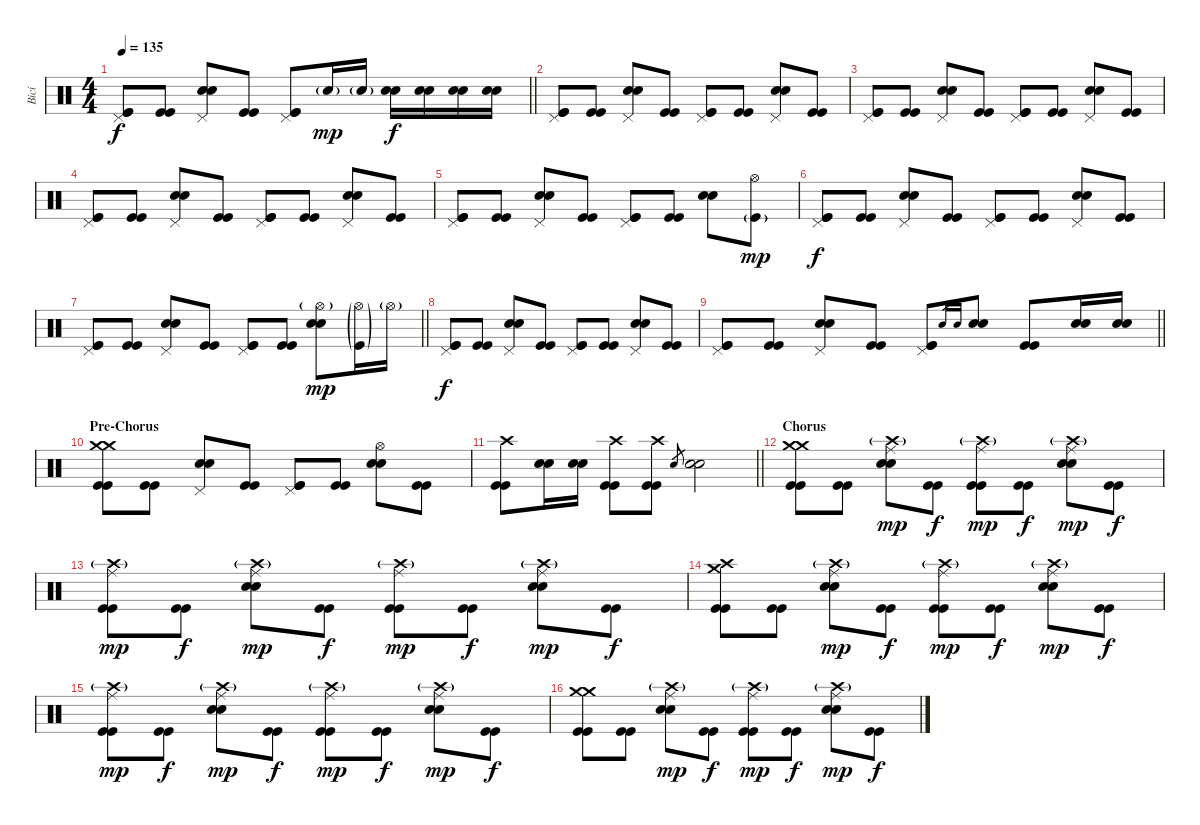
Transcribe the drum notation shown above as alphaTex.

\track ("Bicí" "Bicí") {instrument percussion}
\staff {score}
\articulation defaults
\ts (4 4)
\tempo 135
\clef neutral
\barLineRight lightlight
\ks c
("Pedal Hi-Hat (hit)" "Kick (hit)" "Kick (hit)").8{dy f} ("Kick (hit)" "Kick (hit)").8 ("Pedal Hi-Hat (hit)" "Electric Snare (hit)" "Electric Snare (hit)").8 ("Kick (hit)" "Kick (hit)").8 ("Pedal Hi-Hat (hit)" "Kick (hit)" "Kick (hit)").8 "Electric Snare (hit)"{g}.16{dy mp} "Electric Snare (hit)"{g}.16 ("Electric Snare (hit)" "Electric Snare (hit)").16{dy f} ("Electric Snare (hit)" "Electric Snare (hit)").16 ("Electric Snare (hit)" "Electric Snare (hit)").16 ("Electric Snare (hit)" "Electric Snare (hit)").16 |
("Pedal Hi-Hat (hit)" "Kick (hit)" "Kick (hit)").8 ("Kick (hit)" "Kick (hit)").8 ("Pedal Hi-Hat (hit)" "Electric Snare (hit)" "Electric Snare (hit)").8 ("Kick (hit)" "Kick (hit)").8 ("Pedal Hi-Hat (hit)" "Kick (hit)" "Kick (hit)").8 ("Kick (hit)" "Kick (hit)").8 ("Pedal Hi-Hat (hit)" "Electric Snare (hit)" "Electric Snare (hit)").8 ("Kick (hit)" "Kick (hit)").8 |
("Pedal Hi-Hat (hit)" "Kick (hit)" "Kick (hit)").8 ("Kick (hit)" "Kick (hit)").8 ("Pedal Hi-Hat (hit)" "Electric Snare (hit)" "Electric Snare (hit)").8 ("Kick (hit)" "Kick (hit)").8 ("Pedal Hi-Hat (hit)" "Kick (hit)" "Kick (hit)").8 ("Kick (hit)" "Kick (hit)").8 ("Pedal Hi-Hat (hit)" "Electric Snare (hit)" "Electric Snare (hit)").8 ("Kick (hit)" "Kick (hit)").8 |
("Pedal Hi-Hat (hit)" "Kick (hit)" "Kick (hit)").8 ("Kick (hit)" "Kick (hit)").8 ("Pedal Hi-Hat (hit)" "Electric Snare (hit)" "Electric Snare (hit)").8 ("Kick (hit)" "Kick (hit)").8 ("Pedal Hi-Hat (hit)" "Kick (hit)" "Kick (hit)").8 ("Kick (hit)" "Kick (hit)").8 ("Pedal Hi-Hat (hit)" "Electric Snare (hit)" "Electric Snare (hit)").8 ("Kick (hit)" "Kick (hit)").8 |
("Pedal Hi-Hat (hit)" "Kick (hit)" "Kick (hit)").8 ("Kick (hit)" "Kick (hit)").8 ("Pedal Hi-Hat (hit)" "Electric Snare (hit)" "Electric Snare (hit)").8 ("Kick (hit)" "Kick (hit)").8 ("Pedal Hi-Hat (hit)" "Kick (hit)" "Kick (hit)").8 ("Kick (hit)" "Kick (hit)").8 ("Electric Snare (hit)" "Electric Snare (hit)").8 ("Hi-Hat (open)" "Kick (hit)"{g}).8{dy mp} |
("Pedal Hi-Hat (hit)" "Kick (hit)" "Kick (hit)").8{dy f} ("Kick (hit)" "Kick (hit)").8 ("Pedal Hi-Hat (hit)" "Electric Snare (hit)" "Electric Snare (hit)").8 ("Kick (hit)" "Kick (hit)").8 ("Pedal Hi-Hat (hit)" "Kick (hit)" "Kick (hit)").8 ("Kick (hit)" "Kick (hit)").8 ("Pedal Hi-Hat (hit)" "Electric Snare (hit)" "Electric Snare (hit)").8 ("Kick (hit)" "Kick (hit)").8 |
\barLineRight lightlight
("Pedal Hi-Hat (hit)" "Kick (hit)" "Kick (hit)").8 ("Kick (hit)" "Kick (hit)").8 ("Pedal Hi-Hat (hit)" "Electric Snare (hit)" "Electric Snare (hit)").8 ("Kick (hit)" "Kick (hit)").8 ("Pedal Hi-Hat (hit)" "Kick (hit)" "Kick (hit)").8 ("Kick (hit)" "Kick (hit)").8 ("Hi-Hat (open)"{g} "Electric Snare (hit)" "Electric Snare (hit)").8{dy mp} ("Hi-Hat (open)"{g} "Kick (hit)"{g}).16 "Hi-Hat (open)"{g}.16 |
("Pedal Hi-Hat (hit)" "Kick (hit)" "Kick (hit)").8{dy f} ("Kick (hit)" "Kick (hit)").8 ("Pedal Hi-Hat (hit)" "Electric Snare (hit)" "Electric Snare (hit)").8 ("Kick (hit)" "Kick (hit)").8 ("Pedal Hi-Hat (hit)" "Kick (hit)" "Kick (hit)").8 ("Kick (hit)" "Kick (hit)").8 ("Pedal Hi-Hat (hit)" "Electric Snare (hit)" "Electric Snare (hit)").8 ("Kick (hit)" "Kick (hit)").8 |
\barLineRight lightlight
("Pedal Hi-Hat (hit)" "Kick (hit)" "Kick (hit)").8 ("Kick (hit)" "Kick (hit)").8 ("Pedal Hi-Hat (hit)" "Electric Snare (hit)" "Electric Snare (hit)").8 ("Kick (hit)" "Kick (hit)").8 ("Pedal Hi-Hat (hit)" "Kick (hit)" "Kick (hit)").8 "Electric Snare (hit)".16{gr} "Electric Snare (hit)".16{gr} ("Electric Snare (hit)" "Electric Snare (hit)").8 ("Kick (hit)" "Kick (hit)").8 ("Electric Snare (hit)" "Electric Snare (hit)").16 ("Electric Snare (hit)" "Electric Snare (hit)").16 |
\section ("" "Pre-Chorus")
("Crash medium (hit)" "Crash medium (hit)" "Kick (hit)" "Kick (hit)").8 ("Kick (hit)" "Kick (hit)").8 ("Pedal Hi-Hat (hit)" "Electric Snare (hit)" "Electric Snare (hit)").8 ("Kick (hit)" "Kick (hit)").8 ("Pedal Hi-Hat (hit)" "Kick (hit)" "Kick (hit)").8 ("Kick (hit)" "Kick (hit)").8 ("Hi-Hat (open)" "Electric Snare (hit)" "Electric Snare (hit)").8 ("Kick (hit)" "Kick (hit)").8 |
\barLineRight lightlight
("Crash high (hit)" "Kick (hit)" "Kick (hit)").8 ("Electric Snare (hit)" "Electric Snare (hit)").16 ("Electric Snare (hit)" "Electric Snare (hit)").16 ("Crash high (hit)" "Kick (hit)" "Kick (hit)").8 ("Crash high (hit)" "Kick (hit)" "Kick (hit)").8 "Electric Snare (hit)".8{gr} ("Electric Snare (hit)" "Electric Snare (hit)").2 |
\section ("" "Chorus")
("Crash medium (hit)" "Crash medium (hit)" "Kick (hit)" "Kick (hit)").8 ("Kick (hit)" "Kick (hit)").8 ("Crash high (hit)"{g} "Ride (middle)" "Electric Snare (hit)" "Electric Snare (hit)").8{dy mp} ("Kick (hit)" "Kick (hit)").8{dy f} ("Crash high (hit)"{g} "Ride (middle)" "Kick (hit)" "Kick (hit)").8{dy mp} ("Kick (hit)" "Kick (hit)").8{dy f} ("Crash high (hit)"{g} "Ride (middle)" "Electric Snare (hit)" "Electric Snare (hit)").8{dy mp} ("Kick (hit)" "Kick (hit)").8{dy f} |
("Crash high (hit)"{g} "Ride (middle)" "Kick (hit)" "Kick (hit)").8{dy mp} ("Kick (hit)" "Kick (hit)").8{dy f} ("Crash high (hit)"{g} "Ride (middle)" "Electric Snare (hit)" "Electric Snare (hit)").8{dy mp} ("Kick (hit)" "Kick (hit)").8{dy f} ("Crash high (hit)"{g} "Ride (middle)" "Kick (hit)" "Kick (hit)").8{dy mp} ("Kick (hit)" "Kick (hit)").8{dy f} ("Crash high (hit)"{g} "Ride (middle)" "Electric Snare (hit)" "Electric Snare (hit)").8{dy mp} ("Kick (hit)" "Kick (hit)").8{dy f} |
("Crash high (hit)" "Crash medium (hit)" "Kick (hit)" "Kick (hit)").8 ("Kick (hit)" "Kick (hit)").8 ("Crash high (hit)"{g} "Ride (middle)" "Electric Snare (hit)" "Electric Snare (hit)").8{dy mp} ("Kick (hit)" "Kick (hit)").8{dy f} ("Crash high (hit)"{g} "Ride (middle)" "Kick (hit)" "Kick (hit)").8{dy mp} ("Kick (hit)" "Kick (hit)").8{dy f} ("Crash high (hit)"{g} "Ride (middle)" "Electric Snare (hit)" "Electric Snare (hit)").8{dy mp} ("Kick (hit)" "Kick (hit)").8{dy f} |
("Crash high (hit)"{g} "Ride (middle)" "Kick (hit)" "Kick (hit)").8{dy mp} ("Kick (hit)" "Kick (hit)").8{dy f} ("Crash high (hit)"{g} "Ride (middle)" "Electric Snare (hit)" "Electric Snare (hit)").8{dy mp} ("Kick (hit)" "Kick (hit)").8{dy f} ("Crash high (hit)"{g} "Ride (middle)" "Kick (hit)" "Kick (hit)").8{dy mp} ("Kick (hit)" "Kick (hit)").8{dy f} ("Crash high (hit)"{g} "Ride (middle)" "Electric Snare (hit)" "Electric Snare (hit)").8{dy mp} ("Kick (hit)" "Kick (hit)").8{dy f} |
("Crash medium (hit)" "Crash medium (hit)" "Kick (hit)" "Kick (hit)").8 ("Kick (hit)" "Kick (hit)").8 ("Crash high (hit)"{g} "Ride (middle)" "Electric Snare (hit)" "Electric Snare (hit)").8{dy mp} ("Kick (hit)" "Kick (hit)").8{dy f} ("Crash high (hit)"{g} "Ride (middle)" "Kick (hit)" "Kick (hit)").8{dy mp} ("Kick (hit)" "Kick (hit)").8{dy f} ("Crash high (hit)"{g} "Ride (middle)" "Electric Snare (hit)" "Electric Snare (hit)").8{dy mp} ("Kick (hit)" "Kick (hit)").8{dy f}
